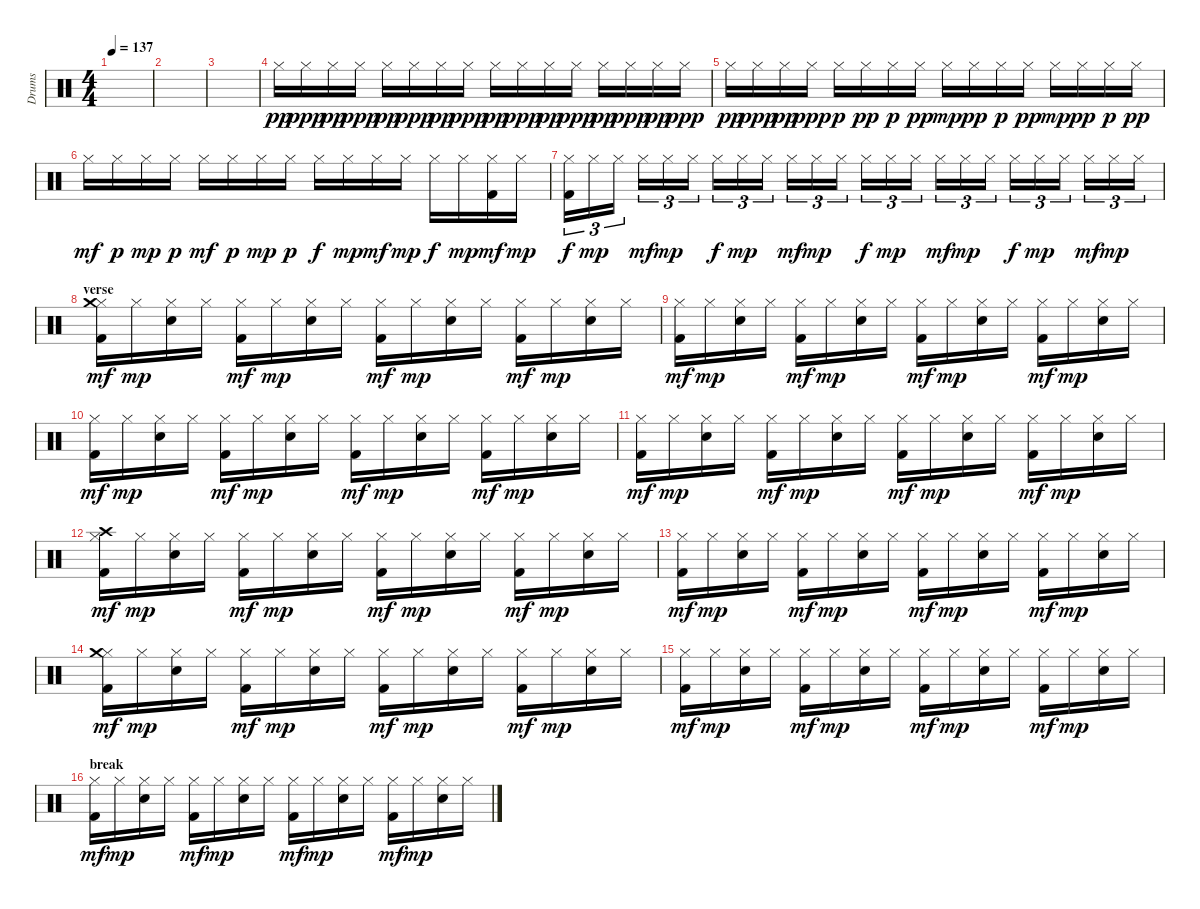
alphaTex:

\track ("Drums" "Drums") {instrument percussion}
\staff {score}
\articulation defaults
\ts (4 4)
\tempo 137
\clef neutral
\ks c
|
|
|
"Hi-Hat (closed)".16{dy pp} "Hi-Hat (closed)".16{dy ppp} "Hi-Hat (closed)".16{dy pp} "Hi-Hat (closed)".16{dy ppp} "Hi-Hat (closed)".16{dy pp} "Hi-Hat (closed)".16{dy ppp} "Hi-Hat (closed)".16{dy pp} "Hi-Hat (closed)".16{dy ppp} "Hi-Hat (closed)".16{dy pp} "Hi-Hat (closed)".16{dy ppp} "Hi-Hat (closed)".16{dy pp} "Hi-Hat (closed)".16{dy ppp} "Hi-Hat (closed)".16{dy pp} "Hi-Hat (closed)".16{dy ppp} "Hi-Hat (closed)".16{dy pp} "Hi-Hat (closed)".16{dy ppp} |
"Hi-Hat (closed)".16{dy pp} "Hi-Hat (closed)".16{dy ppp} "Hi-Hat (closed)".16{dy pp} "Hi-Hat (closed)".16{dy ppp} "Hi-Hat (closed)".16{dy p} "Hi-Hat (closed)".16{dy pp} "Hi-Hat (closed)".16{dy p} "Hi-Hat (closed)".16{dy pp} "Hi-Hat (closed)".16{dy mp} "Hi-Hat (closed)".16{dy pp} "Hi-Hat (closed)".16{dy p} "Hi-Hat (closed)".16{dy pp} "Hi-Hat (closed)".16{dy mp} "Hi-Hat (closed)".16{dy pp} "Hi-Hat (closed)".16{dy p} "Hi-Hat (closed)".16{dy pp} |
"Hi-Hat (closed)".16{dy mf} "Hi-Hat (closed)".16{dy p} "Hi-Hat (closed)".16{dy mp} "Hi-Hat (closed)".16{dy p} "Hi-Hat (closed)".16{dy mf} "Hi-Hat (closed)".16{dy p} "Hi-Hat (closed)".16{dy mp} "Hi-Hat (closed)".16{dy p} "Hi-Hat (closed)".16{dy f} "Hi-Hat (closed)".16{dy mp} "Hi-Hat (closed)".16{dy mf} "Hi-Hat (closed)".16{dy mp} "Hi-Hat (closed)".16{dy f} "Hi-Hat (closed)".16{dy mp} ("Hi-Hat (closed)" "Kick (hit) 2").16{dy mf} "Hi-Hat (closed)".16{dy mp} |
("Hi-Hat (closed)" "Kick (hit) 2").16{tu (3 2) dy f} "Hi-Hat (closed)".16{tu (3 2) dy mp} "Hi-Hat (closed)".16{tu (3 2)} "Hi-Hat (closed)".16{tu (3 2) dy mf} "Hi-Hat (closed)".16{tu (3 2) dy mp} "Hi-Hat (closed)".16{tu (3 2)} "Hi-Hat (closed)".16{tu (3 2) dy f} "Hi-Hat (closed)".16{tu (3 2) dy mp} "Hi-Hat (closed)".16{tu (3 2)} "Hi-Hat (closed)".16{tu (3 2) dy mf} "Hi-Hat (closed)".16{tu (3 2) dy mp} "Hi-Hat (closed)".16{tu (3 2)} "Hi-Hat (closed)".16{tu (3 2) dy f} "Hi-Hat (closed)".16{tu (3 2) dy mp} "Hi-Hat (closed)".16{tu (3 2)} "Hi-Hat (closed)".16{tu (3 2) dy mf} "Hi-Hat (closed)".16{tu (3 2) dy mp} "Hi-Hat (closed)".16{tu (3 2)} "Hi-Hat (closed)".16{tu (3 2) dy f} "Hi-Hat (closed)".16{tu (3 2) dy mp} "Hi-Hat (closed)".16{tu (3 2)} "Hi-Hat (closed)".16{tu (3 2) dy mf} "Hi-Hat (closed)".16{tu (3 2) dy mp} "Hi-Hat (closed)".16{tu (3 2)} |
\section ("" "verse")
("Hi-Hat (closed)" "Crash medium (hit)" "Kick (hit) 2").16{dy mf} "Hi-Hat (closed)".16{dy mp} ("Hi-Hat (closed)" "Snare (hit) 2").16 "Hi-Hat (closed)".16 ("Hi-Hat (closed)" "Kick (hit) 2").16{dy mf} "Hi-Hat (closed)".16{dy mp} ("Hi-Hat (closed)" "Snare (hit) 2").16 "Hi-Hat (closed)".16 ("Hi-Hat (closed)" "Kick (hit) 2").16{dy mf} "Hi-Hat (closed)".16{dy mp} ("Hi-Hat (closed)" "Snare (hit) 2").16 "Hi-Hat (closed)".16 ("Hi-Hat (closed)" "Kick (hit) 2").16{dy mf} "Hi-Hat (closed)".16{dy mp} ("Hi-Hat (closed)" "Snare (hit) 2").16 "Hi-Hat (closed)".16 |
("Hi-Hat (closed)" "Kick (hit) 2").16{dy mf} "Hi-Hat (closed)".16{dy mp} ("Hi-Hat (closed)" "Snare (hit) 2").16 "Hi-Hat (closed)".16 ("Hi-Hat (closed)" "Kick (hit) 2").16{dy mf} "Hi-Hat (closed)".16{dy mp} ("Hi-Hat (closed)" "Snare (hit) 2").16 "Hi-Hat (closed)".16 ("Hi-Hat (closed)" "Kick (hit) 2").16{dy mf} "Hi-Hat (closed)".16{dy mp} ("Hi-Hat (closed)" "Snare (hit) 2").16 "Hi-Hat (closed)".16 ("Hi-Hat (closed)" "Kick (hit) 2").16{dy mf} "Hi-Hat (closed)".16{dy mp} ("Hi-Hat (closed)" "Snare (hit) 2").16 "Hi-Hat (closed)".16 |
("Hi-Hat (closed)" "Kick (hit) 2").16{dy mf} "Hi-Hat (closed)".16{dy mp} ("Hi-Hat (closed)" "Snare (hit) 2").16 "Hi-Hat (closed)".16 ("Hi-Hat (closed)" "Kick (hit) 2").16{dy mf} "Hi-Hat (closed)".16{dy mp} ("Hi-Hat (closed)" "Snare (hit) 2").16 "Hi-Hat (closed)".16 ("Hi-Hat (closed)" "Kick (hit) 2").16{dy mf} "Hi-Hat (closed)".16{dy mp} ("Hi-Hat (closed)" "Snare (hit) 2").16 "Hi-Hat (closed)".16 ("Hi-Hat (closed)" "Kick (hit) 2").16{dy mf} "Hi-Hat (closed)".16{dy mp} ("Hi-Hat (closed)" "Snare (hit) 2").16 "Hi-Hat (closed)".16 |
("Hi-Hat (closed)" "Kick (hit) 2").16{dy mf} "Hi-Hat (closed)".16{dy mp} ("Hi-Hat (closed)" "Snare (hit) 2").16 "Hi-Hat (closed)".16 ("Hi-Hat (closed)" "Kick (hit) 2").16{dy mf} "Hi-Hat (closed)".16{dy mp} ("Hi-Hat (closed)" "Snare (hit) 2").16 "Hi-Hat (closed)".16 ("Hi-Hat (closed)" "Kick (hit) 2").16{dy mf} "Hi-Hat (closed)".16{dy mp} ("Hi-Hat (closed)" "Snare (hit) 2").16 "Hi-Hat (closed)".16 ("Hi-Hat (closed)" "Kick (hit) 2").16{dy mf} "Hi-Hat (closed)".16{dy mp} ("Hi-Hat (closed)" "Snare (hit) 2").16 "Hi-Hat (closed)".16 |
("Hi-Hat (closed)" "Crash high (hit)" "Kick (hit) 2").16{dy mf} "Hi-Hat (closed)".16{dy mp} ("Hi-Hat (closed)" "Snare (hit) 2").16 "Hi-Hat (closed)".16 ("Hi-Hat (closed)" "Kick (hit) 2").16{dy mf} "Hi-Hat (closed)".16{dy mp} ("Hi-Hat (closed)" "Snare (hit) 2").16 "Hi-Hat (closed)".16 ("Hi-Hat (closed)" "Kick (hit) 2").16{dy mf} "Hi-Hat (closed)".16{dy mp} ("Hi-Hat (closed)" "Snare (hit) 2").16 "Hi-Hat (closed)".16 ("Hi-Hat (closed)" "Kick (hit) 2").16{dy mf} "Hi-Hat (closed)".16{dy mp} ("Hi-Hat (closed)" "Snare (hit) 2").16 "Hi-Hat (closed)".16 |
("Hi-Hat (closed)" "Kick (hit) 2").16{dy mf} "Hi-Hat (closed)".16{dy mp} ("Hi-Hat (closed)" "Snare (hit) 2").16 "Hi-Hat (closed)".16 ("Hi-Hat (closed)" "Kick (hit) 2").16{dy mf} "Hi-Hat (closed)".16{dy mp} ("Hi-Hat (closed)" "Snare (hit) 2").16 "Hi-Hat (closed)".16 ("Hi-Hat (closed)" "Kick (hit) 2").16{dy mf} "Hi-Hat (closed)".16{dy mp} ("Hi-Hat (closed)" "Snare (hit) 2").16 "Hi-Hat (closed)".16 ("Hi-Hat (closed)" "Kick (hit) 2").16{dy mf} "Hi-Hat (closed)".16{dy mp} ("Hi-Hat (closed)" "Snare (hit) 2").16 "Hi-Hat (closed)".16 |
("Hi-Hat (closed)" "Crash medium (hit)" "Kick (hit) 2").16{dy mf} "Hi-Hat (closed)".16{dy mp} ("Hi-Hat (closed)" "Snare (hit) 2").16 "Hi-Hat (closed)".16 ("Hi-Hat (closed)" "Kick (hit) 2").16{dy mf} "Hi-Hat (closed)".16{dy mp} ("Hi-Hat (closed)" "Snare (hit) 2").16 "Hi-Hat (closed)".16 ("Hi-Hat (closed)" "Kick (hit) 2").16{dy mf} "Hi-Hat (closed)".16{dy mp} ("Hi-Hat (closed)" "Snare (hit) 2").16 "Hi-Hat (closed)".16 ("Hi-Hat (closed)" "Kick (hit) 2").16{dy mf} "Hi-Hat (closed)".16{dy mp} ("Hi-Hat (closed)" "Snare (hit) 2").16 "Hi-Hat (closed)".16 |
("Hi-Hat (closed)" "Kick (hit) 2").16{dy mf} "Hi-Hat (closed)".16{dy mp} ("Hi-Hat (closed)" "Snare (hit) 2").16 "Hi-Hat (closed)".16 ("Hi-Hat (closed)" "Kick (hit) 2").16{dy mf} "Hi-Hat (closed)".16{dy mp} ("Hi-Hat (closed)" "Snare (hit) 2").16 "Hi-Hat (closed)".16 ("Hi-Hat (closed)" "Kick (hit) 2").16{dy mf} "Hi-Hat (closed)".16{dy mp} ("Hi-Hat (closed)" "Snare (hit) 2").16 "Hi-Hat (closed)".16 ("Hi-Hat (closed)" "Kick (hit) 2").16{dy mf} "Hi-Hat (closed)".16{dy mp} ("Hi-Hat (closed)" "Snare (hit) 2").16 "Hi-Hat (closed)".16 |
\section ("" "break")
("Hi-Hat (closed)" "Kick (hit) 2").16{dy mf} "Hi-Hat (closed)".16{dy mp} ("Hi-Hat (closed)" "Snare (hit) 2").16 "Hi-Hat (closed)".16 ("Hi-Hat (closed)" "Kick (hit) 2").16{dy mf} "Hi-Hat (closed)".16{dy mp} ("Hi-Hat (closed)" "Snare (hit) 2").16 "Hi-Hat (closed)".16 ("Hi-Hat (closed)" "Kick (hit) 2").16{dy mf} "Hi-Hat (closed)".16{dy mp} ("Hi-Hat (closed)" "Snare (hit) 2").16 "Hi-Hat (closed)".16 ("Hi-Hat (closed)" "Kick (hit) 2").16{dy mf} "Hi-Hat (closed)".16{dy mp} ("Hi-Hat (closed)" "Snare (hit) 2").16 "Hi-Hat (closed)".16
